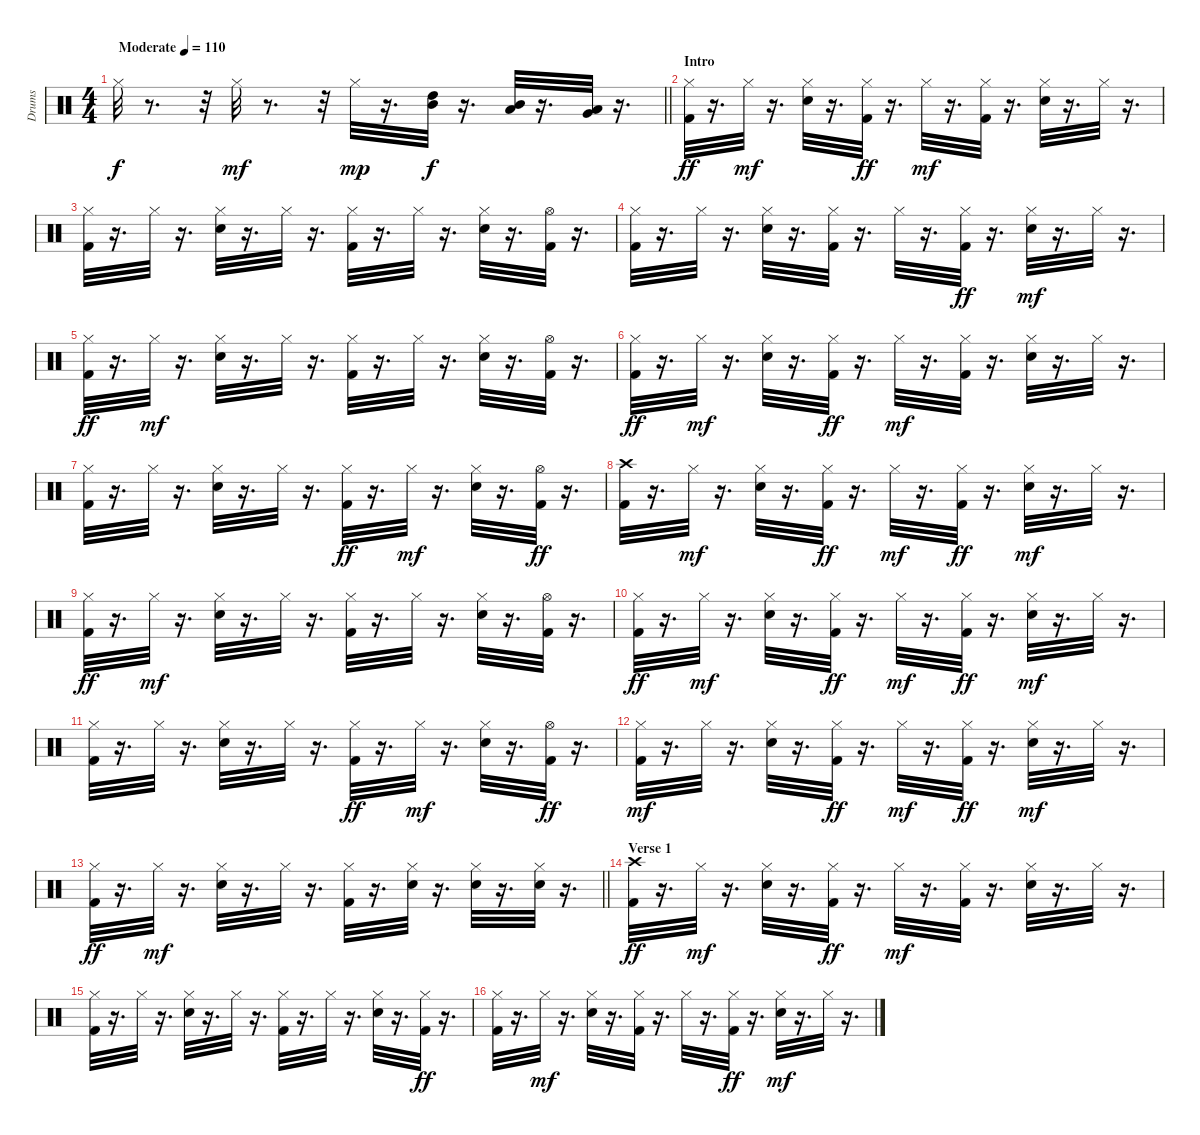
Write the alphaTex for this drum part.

\track ("Drums" "Drums") {instrument percussion}
\staff {score}
\articulation defaults
\ts (4 4)
\tempo (110 "Moderate")
\clef neutral
\barLineRight lightlight
\ks c "Hi-Hat (closed)".32{dy f}
r.8{d} r.32 "Hi-Hat (closed)".32{dy mf} r.8{d} r.32 "Hi-Hat (closed)".32{dy mp} r.16{d} ("High Tom (hit)" "Mid Tom (hit)").32{dy f} r.16{d} ("Mid Tom (hit)" "Low Tom (hit)").32 r.16{d} ("Low Tom (hit)" "Very Low Tom (hit)").32 r.16{d} |
\section ("" "Intro")
("Hi-Hat (closed)" "Kick (hit) 2").32{dy ff} r.16{d} "Hi-Hat (closed)".32{dy mf} r.16{d} ("Snare (hit) 2" "Hi-Hat (closed)").32 r.16{d} ("Hi-Hat (closed)" "Kick (hit) 2").32{dy ff} r.16{d} "Hi-Hat (closed)".32{dy mf} r.16{d} ("Kick (hit) 2" "Hi-Hat (closed)").32 r.16{d} ("Snare (hit) 2" "Hi-Hat (closed)").32 r.16{d} "Hi-Hat (closed)".32 r.16{d} |
("Kick (hit) 2" "Hi-Hat (closed)").32 r.16{d} "Hi-Hat (closed)".32 r.16{d} ("Hi-Hat (closed)" "Snare (hit) 2").32 r.16{d} "Hi-Hat (closed)".32 r.16{d} ("Kick (hit) 2" "Hi-Hat (closed)").32 r.16{d} "Hi-Hat (closed)".32 r.16{d} ("Hi-Hat (closed)" "Snare (hit) 2").32 r.16{d} ("Kick (hit) 2" "Hi-Hat (open)").32 r.16{d} |
("Kick (hit) 2" "Hi-Hat (closed)").32 r.16{d} "Hi-Hat (closed)".32 r.16{d} ("Hi-Hat (closed)" "Snare (hit) 2").32 r.16{d} ("Kick (hit) 2" "Hi-Hat (closed)").32 r.16{d} "Hi-Hat (closed)".32 r.16{d} ("Hi-Hat (closed)" "Kick (hit) 2").32{dy ff} r.16{d} ("Snare (hit) 2" "Hi-Hat (closed)").32{dy mf} r.16{d} "Hi-Hat (closed)".32 r.16{d} |
("Hi-Hat (closed)" "Kick (hit) 2").32{dy ff} r.16{d} "Hi-Hat (closed)".32{dy mf} r.16{d} ("Hi-Hat (closed)" "Snare (hit) 2").32 r.16{d} "Hi-Hat (closed)".32 r.16{d} ("Kick (hit) 2" "Hi-Hat (closed)").32 r.16{d} "Hi-Hat (closed)".32 r.16{d} ("Hi-Hat (closed)" "Snare (hit) 2").32 r.16{d} ("Kick (hit) 2" "Hi-Hat (open)").32 r.16{d} |
("Hi-Hat (closed)" "Kick (hit) 2").32{dy ff} r.16{d} "Hi-Hat (closed)".32{dy mf} r.16{d} ("Snare (hit) 2" "Hi-Hat (closed)").32 r.16{d} ("Hi-Hat (closed)" "Kick (hit) 2").32{dy ff} r.16{d} "Hi-Hat (closed)".32{dy mf} r.16{d} ("Kick (hit) 2" "Hi-Hat (closed)").32 r.16{d} ("Snare (hit) 2" "Hi-Hat (closed)").32 r.16{d} "Hi-Hat (closed)".32 r.16{d} |
("Kick (hit) 2" "Hi-Hat (closed)").32 r.16{d} "Hi-Hat (closed)".32 r.16{d} ("Hi-Hat (closed)" "Snare (hit) 2").32 r.16{d} "Hi-Hat (closed)".32 r.16{d} ("Hi-Hat (closed)" "Kick (hit) 2").32{dy ff} r.16{d} "Hi-Hat (closed)".32{dy mf} r.16{d} ("Hi-Hat (closed)" "Snare (hit) 2").32 r.16{d} ("Hi-Hat (open)" "Kick (hit) 2").32{dy ff} r.16{d} |
("Kick (hit) 2" "Crash high (hit)").32 r.16{d} "Hi-Hat (closed)".32{dy mf} r.16{d} ("Hi-Hat (closed)" "Snare (hit) 2").32 r.16{d} ("Hi-Hat (closed)" "Kick (hit) 2").32{dy ff} r.16{d} "Hi-Hat (closed)".32{dy mf} r.16{d} ("Hi-Hat (closed)" "Kick (hit) 2").32{dy ff} r.16{d} ("Hi-Hat (closed)" "Snare (hit) 2").32{dy mf} r.16{d} "Hi-Hat (closed)".32 r.16{d} |
("Hi-Hat (closed)" "Kick (hit) 2").32{dy ff} r.16{d} "Hi-Hat (closed)".32{dy mf} r.16{d} ("Hi-Hat (closed)" "Snare (hit) 2").32 r.16{d} "Hi-Hat (closed)".32 r.16{d} ("Kick (hit) 2" "Hi-Hat (closed)").32 r.16{d} "Hi-Hat (closed)".32 r.16{d} ("Hi-Hat (closed)" "Snare (hit) 2").32 r.16{d} ("Kick (hit) 2" "Hi-Hat (open)").32 r.16{d} |
("Hi-Hat (closed)" "Kick (hit) 2").32{dy ff} r.16{d} "Hi-Hat (closed)".32{dy mf} r.16{d} ("Snare (hit) 2" "Hi-Hat (closed)").32 r.16{d} ("Hi-Hat (closed)" "Kick (hit) 2").32{dy ff} r.16{d} "Hi-Hat (closed)".32{dy mf} r.16{d} ("Hi-Hat (closed)" "Kick (hit) 2").32{dy ff} r.16{d} ("Snare (hit) 2" "Hi-Hat (closed)").32{dy mf} r.16{d} "Hi-Hat (closed)".32 r.16{d} |
("Kick (hit) 2" "Hi-Hat (closed)").32 r.16{d} "Hi-Hat (closed)".32 r.16{d} ("Snare (hit) 2" "Hi-Hat (closed)").32 r.16{d} "Hi-Hat (closed)".32 r.16{d} ("Hi-Hat (closed)" "Kick (hit) 2").32{dy ff} r.16{d} "Hi-Hat (closed)".32{dy mf} r.16{d} ("Snare (hit) 2" "Hi-Hat (closed)").32 r.16{d} ("Hi-Hat (open)" "Kick (hit) 2").32{dy ff} r.16{d} |
("Kick (hit) 2" "Hi-Hat (closed)").32{dy mf} r.16{d} "Hi-Hat (closed)".32 r.16{d} ("Snare (hit) 2" "Hi-Hat (closed)").32 r.16{d} ("Hi-Hat (closed)" "Kick (hit) 2").32{dy ff} r.16{d} "Hi-Hat (closed)".32{dy mf} r.16{d} ("Hi-Hat (closed)" "Kick (hit) 2").32{dy ff} r.16{d} ("Snare (hit) 2" "Hi-Hat (closed)").32{dy mf} r.16{d} "Hi-Hat (closed)".32 r.16{d} |
\barLineRight lightlight
("Hi-Hat (closed)" "Kick (hit) 2").32{dy ff} r.16{d} "Hi-Hat (closed)".32{dy mf} r.16{d} ("Hi-Hat (closed)" "Snare (hit) 2").32 r.16{d} "Hi-Hat (closed)".32 r.16{d} ("Kick (hit) 2" "Hi-Hat (closed)").32 r.16{d} ("Hi-Hat (closed)" "Snare (hit) 2").32 r.16{d} ("Hi-Hat (closed)" "Snare (hit) 2").32 r.16{d} ("Snare (hit) 2" "Hi-Hat (closed)").32 r.16{d} |
\section ("" "Verse 1")
("Crash high (hit)" "Kick (hit) 2").32{dy ff} r.16{d} "Hi-Hat (closed)".32{dy mf} r.16{d} ("Hi-Hat (closed)" "Snare (hit) 2").32 r.16{d} ("Hi-Hat (closed)" "Kick (hit) 2").32{dy ff} r.16{d} "Hi-Hat (closed)".32{dy mf} r.16{d} ("Kick (hit) 2" "Hi-Hat (closed)").32 r.16{d} ("Snare (hit) 2" "Hi-Hat (closed)").32 r.16{d} "Hi-Hat (closed)".32 r.16{d} |
("Kick (hit) 2" "Hi-Hat (closed)").32 r.16{d} "Hi-Hat (closed)".32 r.16{d} ("Hi-Hat (closed)" "Snare (hit) 2").32 r.16{d} "Hi-Hat (closed)".32 r.16{d} ("Kick (hit) 2" "Hi-Hat (closed)").32 r.16{d} "Hi-Hat (closed)".32 r.16{d} ("Snare (hit) 2" "Hi-Hat (closed)").32 r.16{d} ("Hi-Hat (closed)" "Kick (hit) 2").32{dy ff} r.16{d} |
("Hi-Hat (closed)" "Kick (hit) 2").32 r.16{d} "Hi-Hat (closed)".32{dy mf} r.16{d} ("Hi-Hat (closed)" "Snare (hit) 2").32 r.16{d} ("Kick (hit) 2" "Hi-Hat (closed)").32 r.16{d} "Hi-Hat (closed)".32 r.16{d} ("Hi-Hat (closed)" "Kick (hit) 2").32{dy ff} r.16{d} ("Hi-Hat (closed)" "Snare (hit) 2").32{dy mf} r.16{d} "Hi-Hat (closed)".32 r.16{d}
